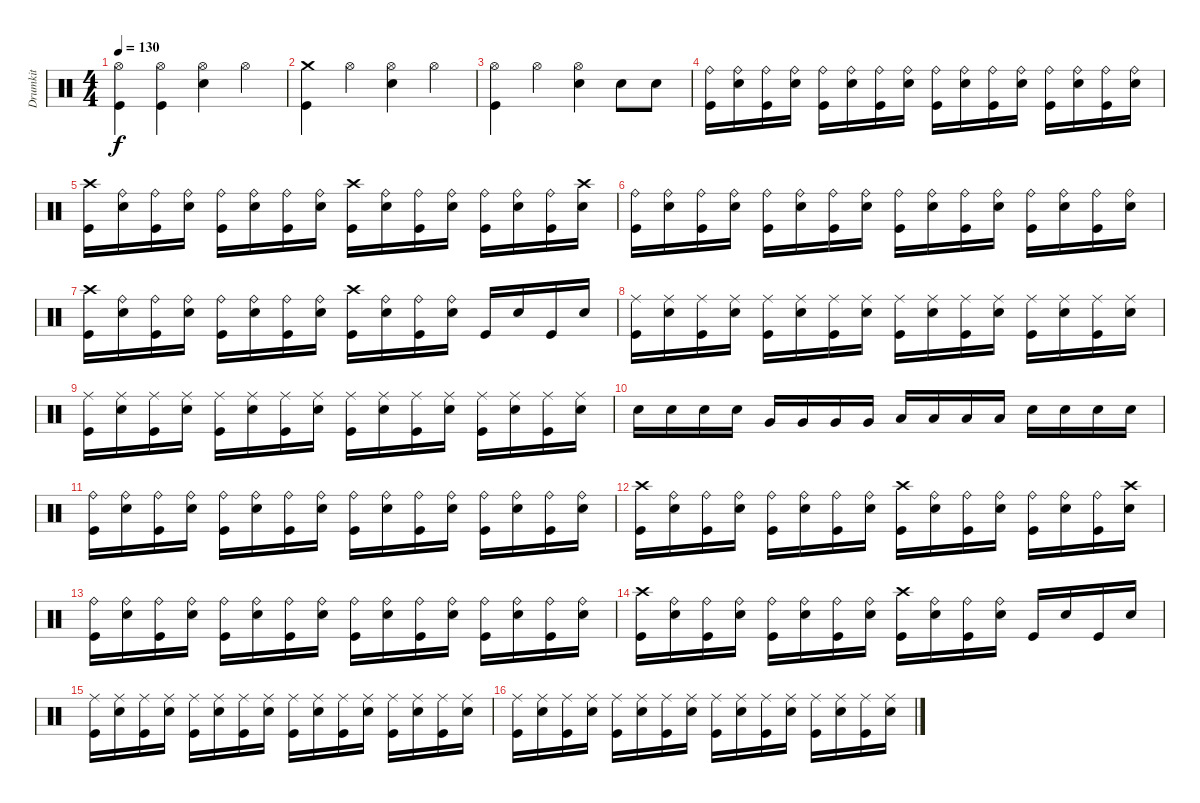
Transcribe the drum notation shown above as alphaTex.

\track ("Drumkit" "Drumkit") {instrument percussion}
\staff {score}
\articulation defaults
\ts (4 4)
\tempo 130
\clef neutral
\ks c
("Hi-Hat (open)" "Kick (hit)").4{dy f} ("Hi-Hat (open)" "Kick (hit)").4 ("Hi-Hat (open)" "Snare (hit) 2").4 "Hi-Hat (open)".4 |
("Crash medium (hit)" "Kick (hit)").4 "Hi-Hat (open)".4 ("Hi-Hat (open)" "Snare (hit) 2").4 "Hi-Hat (open)".4 |
("Hi-Hat (open)" "Kick (hit)").4 "Hi-Hat (open)".4 ("Hi-Hat (open)" "Snare (hit) 2").4 "Snare (hit) 2".8 "Snare (hit) 2".8 |
("Ride (bell)" "Kick (hit)").16 ("Ride (bell)" "Snare (hit) 2").16 ("Ride (bell)" "Kick (hit)").16 ("Ride (bell)" "Snare (hit) 2").16 ("Ride (bell)" "Kick (hit)").16 ("Ride (bell)" "Snare (hit) 2").16 ("Ride (bell)" "Kick (hit)").16 ("Ride (bell)" "Snare (hit) 2").16 ("Ride (bell)" "Kick (hit)").16 ("Ride (bell)" "Snare (hit) 2").16 ("Ride (bell)" "Kick (hit)").16 ("Ride (bell)" "Snare (hit) 2").16 ("Ride (bell)" "Kick (hit)").16 ("Ride (bell)" "Snare (hit) 2").16 ("Ride (bell)" "Kick (hit)").16 ("Ride (bell)" "Snare (hit) 2").16 |
("Crash high (hit)" "Kick (hit)").16 ("Ride (bell)" "Snare (hit) 2").16 ("Ride (bell)" "Kick (hit)").16 ("Ride (bell)" "Snare (hit) 2").16 ("Ride (bell)" "Kick (hit)").16 ("Ride (bell)" "Snare (hit) 2").16 ("Ride (bell)" "Kick (hit)").16 ("Ride (bell)" "Snare (hit) 2").16 ("Crash high (hit)" "Kick (hit)").16 ("Ride (bell)" "Snare (hit) 2").16 ("Ride (bell)" "Kick (hit)").16 ("Ride (bell)" "Snare (hit) 2").16 ("Ride (bell)" "Kick (hit)").16 ("Ride (bell)" "Snare (hit) 2").16 ("Ride (bell)" "Kick (hit)").16 ("Crash high (hit)" "Snare (hit) 2").16 |
("Ride (bell)" "Kick (hit)").16 ("Ride (bell)" "Snare (hit) 2").16 ("Ride (bell)" "Kick (hit)").16 ("Ride (bell)" "Snare (hit) 2").16 ("Ride (bell)" "Kick (hit)").16 ("Ride (bell)" "Snare (hit) 2").16 ("Ride (bell)" "Kick (hit)").16 ("Ride (bell)" "Snare (hit) 2").16 ("Ride (bell)" "Kick (hit)").16 ("Ride (bell)" "Snare (hit) 2").16 ("Ride (bell)" "Kick (hit)").16 ("Ride (bell)" "Snare (hit) 2").16 ("Ride (bell)" "Kick (hit)").16 ("Ride (bell)" "Snare (hit) 2").16 ("Ride (bell)" "Kick (hit)").16 ("Ride (bell)" "Snare (hit) 2").16 |
("Crash high (hit)" "Kick (hit)").16 ("Ride (bell)" "Snare (hit) 2").16 ("Ride (bell)" "Kick (hit)").16 ("Ride (bell)" "Snare (hit) 2").16 ("Ride (bell)" "Kick (hit)").16 ("Ride (bell)" "Snare (hit) 2").16 ("Ride (bell)" "Kick (hit)").16 ("Ride (bell)" "Snare (hit) 2").16 ("Crash high (hit)" "Kick (hit)").16 ("Ride (bell)" "Snare (hit) 2").16 ("Ride (bell)" "Kick (hit)").16 ("Ride (bell)" "Snare (hit) 2").16 "Kick (hit)".16 "Snare (hit) 2".16 "Kick (hit)".16 "Snare (hit) 2".16 |
("Ride (middle)" "Kick (hit)").16 ("Ride (middle)" "Snare (hit) 2").16 ("Ride (middle)" "Kick (hit)").16 ("Ride (middle)" "Snare (hit) 2").16 ("Ride (middle)" "Kick (hit)").16 ("Ride (middle)" "Snare (hit) 2").16 ("Ride (middle)" "Kick (hit)").16 ("Ride (middle)" "Snare (hit) 2").16 ("Ride (middle)" "Kick (hit)").16 ("Ride (middle)" "Snare (hit) 2").16 ("Ride (middle)" "Kick (hit)").16 ("Ride (middle)" "Snare (hit) 2").16 ("Ride (middle)" "Kick (hit)").16 ("Ride (middle)" "Snare (hit) 2").16 ("Ride (middle)" "Kick (hit)").16 ("Ride (middle)" "Snare (hit) 2").16 |
("Ride (middle)" "Kick (hit)").16 ("Ride (middle)" "Snare (hit) 2").16 ("Ride (middle)" "Kick (hit)").16 ("Ride (middle)" "Snare (hit) 2").16 ("Ride (middle)" "Kick (hit)").16 ("Ride (middle)" "Snare (hit) 2").16 ("Ride (middle)" "Kick (hit)").16 ("Ride (middle)" "Snare (hit) 2").16 ("Ride (middle)" "Kick (hit)").16 ("Ride (middle)" "Snare (hit) 2").16 ("Ride (middle)" "Kick (hit)").16 ("Ride (middle)" "Snare (hit) 2").16 ("Ride (middle)" "Kick (hit)").16 ("Ride (middle)" "Snare (hit) 2").16 ("Ride (middle)" "Kick (hit)").16 ("Ride (middle)" "Snare (hit) 2").16 |
"Snare (hit) 2".16 "Snare (hit) 2".16 "Snare (hit) 2".16 "Snare (hit) 2".16 "Very Low Tom (hit)".16 "Very Low Tom (hit)".16 "Very Low Tom (hit)".16 "Very Low Tom (hit)".16 "Low Tom (hit)".16 "Low Tom (hit)".16 "Low Tom (hit)".16 "Low Tom (hit)".16 "Snare (hit) 2".16 "Snare (hit) 2".16 "Snare (hit) 2".16 "Snare (hit) 2".16 |
("Ride (bell)" "Kick (hit)").16 ("Ride (bell)" "Snare (hit) 2").16 ("Ride (bell)" "Kick (hit)").16 ("Ride (bell)" "Snare (hit) 2").16 ("Ride (bell)" "Kick (hit)").16 ("Ride (bell)" "Snare (hit) 2").16 ("Ride (bell)" "Kick (hit)").16 ("Ride (bell)" "Snare (hit) 2").16 ("Ride (bell)" "Kick (hit)").16 ("Ride (bell)" "Snare (hit) 2").16 ("Ride (bell)" "Kick (hit)").16 ("Ride (bell)" "Snare (hit) 2").16 ("Ride (bell)" "Kick (hit)").16 ("Ride (bell)" "Snare (hit) 2").16 ("Ride (bell)" "Kick (hit)").16 ("Ride (bell)" "Snare (hit) 2").16 |
("Crash high (hit)" "Kick (hit)").16 ("Ride (bell)" "Snare (hit) 2").16 ("Ride (bell)" "Kick (hit)").16 ("Ride (bell)" "Snare (hit) 2").16 ("Ride (bell)" "Kick (hit)").16 ("Ride (bell)" "Snare (hit) 2").16 ("Ride (bell)" "Kick (hit)").16 ("Ride (bell)" "Snare (hit) 2").16 ("Crash high (hit)" "Kick (hit)").16 ("Ride (bell)" "Snare (hit) 2").16 ("Ride (bell)" "Kick (hit)").16 ("Ride (bell)" "Snare (hit) 2").16 ("Ride (bell)" "Kick (hit)").16 ("Ride (bell)" "Snare (hit) 2").16 ("Ride (bell)" "Kick (hit)").16 ("Crash high (hit)" "Snare (hit) 2").16 |
("Ride (bell)" "Kick (hit)").16 ("Ride (bell)" "Snare (hit) 2").16 ("Ride (bell)" "Kick (hit)").16 ("Ride (bell)" "Snare (hit) 2").16 ("Ride (bell)" "Kick (hit)").16 ("Ride (bell)" "Snare (hit) 2").16 ("Ride (bell)" "Kick (hit)").16 ("Ride (bell)" "Snare (hit) 2").16 ("Ride (bell)" "Kick (hit)").16 ("Ride (bell)" "Snare (hit) 2").16 ("Ride (bell)" "Kick (hit)").16 ("Ride (bell)" "Snare (hit) 2").16 ("Ride (bell)" "Kick (hit)").16 ("Ride (bell)" "Snare (hit) 2").16 ("Ride (bell)" "Kick (hit)").16 ("Ride (bell)" "Snare (hit) 2").16 |
("Crash high (hit)" "Kick (hit)").16 ("Ride (bell)" "Snare (hit) 2").16 ("Ride (bell)" "Kick (hit)").16 ("Ride (bell)" "Snare (hit) 2").16 ("Ride (bell)" "Kick (hit)").16 ("Ride (bell)" "Snare (hit) 2").16 ("Ride (bell)" "Kick (hit)").16 ("Ride (bell)" "Snare (hit) 2").16 ("Crash high (hit)" "Kick (hit)").16 ("Ride (bell)" "Snare (hit) 2").16 ("Ride (bell)" "Kick (hit)").16 ("Ride (bell)" "Snare (hit) 2").16 "Kick (hit)".16 "Snare (hit) 2".16 "Kick (hit)".16 "Snare (hit) 2".16 |
("Ride (middle)" "Kick (hit)").16 ("Ride (middle)" "Snare (hit) 2").16 ("Ride (middle)" "Kick (hit)").16 ("Ride (middle)" "Snare (hit) 2").16 ("Ride (middle)" "Kick (hit)").16 ("Ride (middle)" "Snare (hit) 2").16 ("Ride (middle)" "Kick (hit)").16 ("Ride (middle)" "Snare (hit) 2").16 ("Ride (middle)" "Kick (hit)").16 ("Ride (middle)" "Snare (hit) 2").16 ("Ride (middle)" "Kick (hit)").16 ("Ride (middle)" "Snare (hit) 2").16 ("Ride (middle)" "Kick (hit)").16 ("Ride (middle)" "Snare (hit) 2").16 ("Ride (middle)" "Kick (hit)").16 ("Ride (middle)" "Snare (hit) 2").16 |
("Ride (middle)" "Kick (hit)").16 ("Ride (middle)" "Snare (hit) 2").16 ("Ride (middle)" "Kick (hit)").16 ("Ride (middle)" "Snare (hit) 2").16 ("Ride (middle)" "Kick (hit)").16 ("Ride (middle)" "Snare (hit) 2").16 ("Ride (middle)" "Kick (hit)").16 ("Ride (middle)" "Snare (hit) 2").16 ("Ride (middle)" "Kick (hit)").16 ("Ride (middle)" "Snare (hit) 2").16 ("Ride (middle)" "Kick (hit)").16 ("Ride (middle)" "Snare (hit) 2").16 ("Ride (middle)" "Kick (hit)").16 ("Ride (middle)" "Snare (hit) 2").16 ("Ride (middle)" "Kick (hit)").16 ("Ride (middle)" "Snare (hit) 2").16
